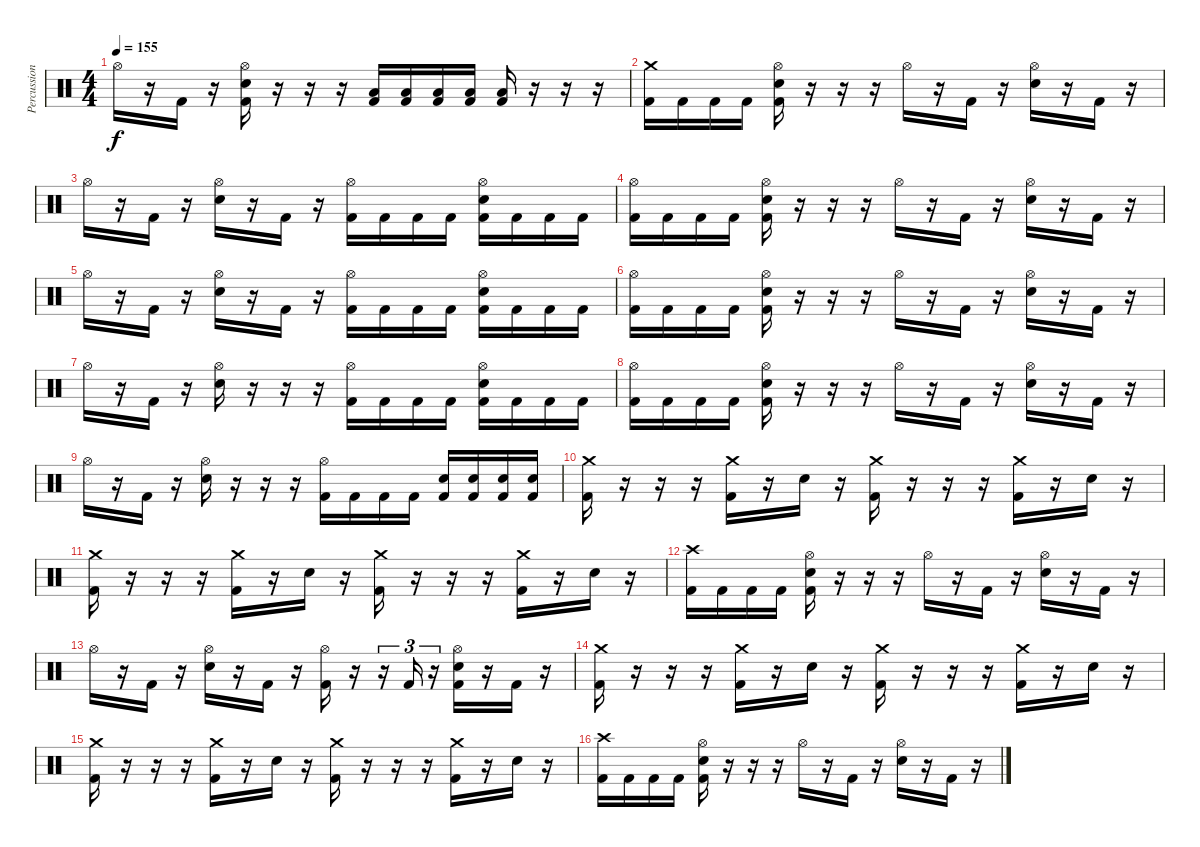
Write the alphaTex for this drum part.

\track ("Percussion" "Percussion") {instrument percussion}
\staff {score}
\articulation defaults
\ts (4 4)
\tempo 155
\clef neutral
\ks c "Hi-Hat (open)".16{dy f}
r.16 "Kick (hit) 2".16 r.16 ("Hi-Hat (open)" "Snare (hit) 2" "Kick (hit) 2").16 r.16 r.16 r.16 ("Low Floor Tom (hit)" "Kick (hit) 2").16 ("Low Floor Tom (hit)" "Kick (hit) 2").16 ("Low Floor Tom (hit)" "Kick (hit) 2").16 ("Low Floor Tom (hit)" "Kick (hit) 2").16 ("Low Floor Tom (hit)" "Kick (hit) 2").16 r.16 r.16 r.16 |
("Crash medium (hit)" "Kick (hit) 2").16 "Kick (hit) 2".16 "Kick (hit) 2".16 "Kick (hit) 2".16 ("Hi-Hat (open)" "Snare (hit) 2" "Kick (hit) 2").16 r.16 r.16 r.16 "Hi-Hat (open)".16 r.16 "Kick (hit) 2".16 r.16 ("Hi-Hat (open)" "Snare (hit) 2").16 r.16 "Kick (hit) 2".16 r.16 |
"Hi-Hat (open)".16 r.16 "Kick (hit) 2".16 r.16 ("Hi-Hat (open)" "Snare (hit) 2").16 r.16 "Kick (hit) 2".16 r.16 ("Hi-Hat (open)" "Kick (hit) 2").16 "Kick (hit) 2".16 "Kick (hit) 2".16 "Kick (hit) 2".16 ("Hi-Hat (open)" "Snare (hit) 2" "Kick (hit) 2").16 "Kick (hit) 2".16 "Kick (hit) 2".16 "Kick (hit) 2".16 |
("Hi-Hat (open)" "Kick (hit) 2").16 "Kick (hit) 2".16 "Kick (hit) 2".16 "Kick (hit) 2".16 ("Hi-Hat (open)" "Snare (hit) 2" "Kick (hit) 2").16 r.16 r.16 r.16 "Hi-Hat (open)".16 r.16 "Kick (hit) 2".16 r.16 ("Hi-Hat (open)" "Snare (hit) 2").16 r.16 "Kick (hit) 2".16 r.16 |
"Hi-Hat (open)".16 r.16 "Kick (hit) 2".16 r.16 ("Hi-Hat (open)" "Snare (hit) 2").16 r.16 "Kick (hit) 2".16 r.16 ("Hi-Hat (open)" "Kick (hit) 2").16 "Kick (hit) 2".16 "Kick (hit) 2".16 "Kick (hit) 2".16 ("Hi-Hat (open)" "Snare (hit) 2" "Kick (hit) 2").16 "Kick (hit) 2".16 "Kick (hit) 2".16 "Kick (hit) 2".16 |
("Hi-Hat (open)" "Kick (hit) 2").16 "Kick (hit) 2".16 "Kick (hit) 2".16 "Kick (hit) 2".16 ("Hi-Hat (open)" "Snare (hit) 2" "Kick (hit) 2").16 r.16 r.16 r.16 "Hi-Hat (open)".16 r.16 "Kick (hit) 2".16 r.16 ("Hi-Hat (open)" "Snare (hit) 2").16 r.16 "Kick (hit) 2".16 r.16 |
"Hi-Hat (open)".16 r.16 "Kick (hit) 2".16 r.16 ("Hi-Hat (open)" "Snare (hit) 2").16 r.16 r.16 r.16 ("Hi-Hat (open)" "Kick (hit) 2").16 "Kick (hit) 2".16 "Kick (hit) 2".16 "Kick (hit) 2".16 ("Hi-Hat (open)" "Snare (hit) 2" "Kick (hit) 2").16 "Kick (hit) 2".16 "Kick (hit) 2".16 "Kick (hit) 2".16 |
("Hi-Hat (open)" "Kick (hit) 2").16 "Kick (hit) 2".16 "Kick (hit) 2".16 "Kick (hit) 2".16 ("Hi-Hat (open)" "Snare (hit) 2" "Kick (hit) 2").16 r.16 r.16 r.16 "Hi-Hat (open)".16 r.16 "Kick (hit) 2".16 r.16 ("Hi-Hat (open)" "Snare (hit) 2").16 r.16 "Kick (hit) 2".16 r.16 |
"Hi-Hat (open)".16 r.16 "Kick (hit) 2".16 r.16 ("Hi-Hat (open)" "Snare (hit) 2").16 r.16 r.16 r.16 ("Hi-Hat (open)" "Kick (hit) 2").16 "Kick (hit) 2".16 "Kick (hit) 2".16 "Kick (hit) 2".16 ("Snare (hit) 2" "Kick (hit) 2").16 ("Snare (hit) 2" "Kick (hit) 2").16 ("Snare (hit) 2" "Kick (hit) 2").16 ("Snare (hit) 2" "Kick (hit) 2").16 |
("Crash medium (hit)" "Kick (hit) 2").16 r.16 r.16 r.16 ("Crash medium (hit)" "Kick (hit) 2").16 r.16 "Snare (hit) 2".16 r.16 ("Crash medium (hit)" "Kick (hit) 2").16 r.16 r.16 r.16 ("Crash medium (hit)" "Kick (hit) 2").16 r.16 "Snare (hit) 2".16 r.16 |
("Crash medium (hit)" "Kick (hit) 2").16 r.16 r.16 r.16 ("Crash medium (hit)" "Kick (hit) 2").16 r.16 "Snare (hit) 2".16 r.16 ("Crash medium (hit)" "Kick (hit) 2").16 r.16 r.16 r.16 ("Crash medium (hit)" "Kick (hit) 2").16 r.16 "Snare (hit) 2".16 r.16 |
("Crash high (hit)" "Kick (hit) 2").16 "Kick (hit) 2".16 "Kick (hit) 2".16 "Kick (hit) 2".16 ("Hi-Hat (open)" "Snare (hit) 2" "Kick (hit) 2").16 r.16 r.16 r.16 "Hi-Hat (open)".16 r.16 "Kick (hit) 2".16 r.16 ("Hi-Hat (open)" "Snare (hit) 2").16 r.16 "Kick (hit) 2".16 r.16 |
"Hi-Hat (open)".16 r.16 "Kick (hit) 2".16 r.16 ("Hi-Hat (open)" "Snare (hit) 2").16 r.16 "Kick (hit) 2".16 r.16 ("Hi-Hat (open)" "Kick (hit) 2").16 r.16 r.16{tu (3 2)} "Kick (hit) 2".16{tu (3 2)} r.16{tu (3 2)} ("Hi-Hat (open)" "Snare (hit) 2" "Kick (hit) 2").16 r.16 "Kick (hit) 2".16 r.16 |
("Crash medium (hit)" "Kick (hit) 2").16 r.16 r.16 r.16 ("Crash medium (hit)" "Kick (hit) 2").16 r.16 "Snare (hit) 2".16 r.16 ("Crash medium (hit)" "Kick (hit) 2").16 r.16 r.16 r.16 ("Crash medium (hit)" "Kick (hit) 2").16 r.16 "Snare (hit) 2".16 r.16 |
("Crash medium (hit)" "Kick (hit) 2").16 r.16 r.16 r.16 ("Crash medium (hit)" "Kick (hit) 2").16 r.16 "Snare (hit) 2".16 r.16 ("Crash medium (hit)" "Kick (hit) 2").16 r.16 r.16 r.16 ("Crash medium (hit)" "Kick (hit) 2").16 r.16 "Snare (hit) 2".16 r.16 |
("Crash high (hit)" "Kick (hit) 2").16 "Kick (hit) 2".16 "Kick (hit) 2".16 "Kick (hit) 2".16 ("Hi-Hat (open)" "Snare (hit) 2" "Kick (hit) 2").16 r.16 r.16 r.16 "Hi-Hat (open)".16 r.16 "Kick (hit) 2".16 r.16 ("Hi-Hat (open)" "Snare (hit) 2").16 r.16 "Kick (hit) 2".16 r.16
